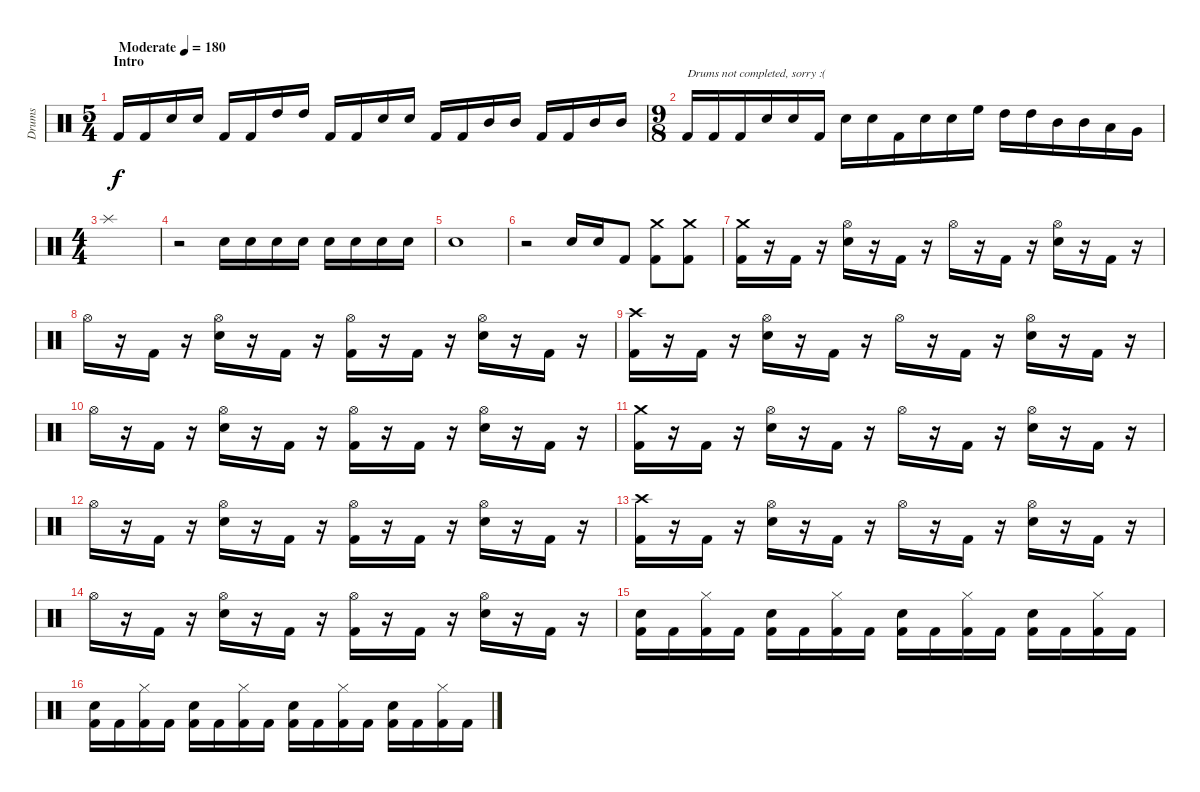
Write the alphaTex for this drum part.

\track ("Drums" "Drums") {instrument percussion}
\staff {score}
\articulation defaults
\ts (5 4)
\section ("" "Intro")
\tempo (180 "Moderate")
\clef neutral
\ks c "Kick (hit) 2".16{dy f} "Kick (hit) 2".16 "Electric Snare (hit)".16 "Electric Snare (hit)".16 "Kick (hit) 2".16 "Kick (hit) 2".16 "High Tom (hit)".16 "High Tom (hit)".16 "Kick (hit) 2".16 "Kick (hit) 2".16 "Electric Snare (hit)".16 "Electric Snare (hit)".16 "Kick (hit) 2".16 "Kick (hit) 2".16 "Mid Tom (hit)".16 "Mid Tom (hit)".16 "Kick (hit) 2".16 "Kick (hit) 2".16 "Mid Tom (hit)".16 "Mid Tom (hit)".16
|
\ts (9 8)
"Kick (hit) 2".16{txt "Drums not completed, sorry :("} "Kick (hit) 2".16 "Kick (hit) 2".16 "Electric Snare (hit)".16 "Electric Snare (hit)".16 "Kick (hit) 2".16 "Electric Snare (hit)".16 "Electric Snare (hit)".16 "Kick (hit) 2".16 "Electric Snare (hit)".16 "Electric Snare (hit)".16 "High Floor Tom (hit)".16 "High Tom (hit)".16 "High Tom (hit)".16 "Mid Tom (hit)".16 "Mid Tom (hit)".16 "Low Tom (hit)".16 "Very Low Tom (hit)".16 |
\ts (4 4)
"Splash (hit)".1 |
r.2 "Electric Snare (hit)".16 "Electric Snare (hit)".16 "Electric Snare (hit)".16 "Electric Snare (hit)".16 "Electric Snare (hit)".16 "Electric Snare (hit)".16 "Electric Snare (hit)".16 "Electric Snare (hit)".16 |
"Electric Snare (hit)".1 |
r.2 "Electric Snare (hit)".16 "Electric Snare (hit)".16 "Kick (hit) 2".8 ("Crash medium (hit)" "Kick (hit) 2").8 ("Crash medium (hit)" "Kick (hit) 2").8 |
("Crash medium (hit)" "Kick (hit) 2").16 r.16 "Kick (hit) 2".16 r.16 ("Hi-Hat (open)" "Snare (hit) 2").16 r.16 "Kick (hit) 2".16 r.16 "Hi-Hat (open)".16 r.16 "Kick (hit) 2".16 r.16 ("Hi-Hat (open)" "Snare (hit) 2").16 r.16 "Kick (hit) 2".16 r.16 |
"Hi-Hat (open)".16 r.16 "Kick (hit) 2".16 r.16 ("Hi-Hat (open)" "Snare (hit) 2").16 r.16 "Kick (hit) 2".16 r.16 ("Hi-Hat (open)" "Kick (hit) 2").16 r.16 "Kick (hit) 2".16 r.16 ("Hi-Hat (open)" "Snare (hit) 2").16 r.16 "Kick (hit) 2".16 r.16 |
("Crash high (hit)" "Kick (hit) 2").16 r.16 "Kick (hit) 2".16 r.16 ("Hi-Hat (open)" "Snare (hit) 2").16 r.16 "Kick (hit) 2".16 r.16 "Hi-Hat (open)".16 r.16 "Kick (hit) 2".16 r.16 ("Hi-Hat (open)" "Snare (hit) 2").16 r.16 "Kick (hit) 2".16 r.16 |
"Hi-Hat (open)".16 r.16 "Kick (hit) 2".16 r.16 ("Hi-Hat (open)" "Snare (hit) 2").16 r.16 "Kick (hit) 2".16 r.16 ("Hi-Hat (open)" "Kick (hit) 2").16 r.16 "Kick (hit) 2".16 r.16 ("Hi-Hat (open)" "Snare (hit) 2").16 r.16 "Kick (hit) 2".16 r.16 |
("Crash medium (hit)" "Kick (hit) 2").16 r.16 "Kick (hit) 2".16 r.16 ("Hi-Hat (open)" "Snare (hit) 2").16 r.16 "Kick (hit) 2".16 r.16 "Hi-Hat (open)".16 r.16 "Kick (hit) 2".16 r.16 ("Hi-Hat (open)" "Snare (hit) 2").16 r.16 "Kick (hit) 2".16 r.16 |
"Hi-Hat (open)".16 r.16 "Kick (hit) 2".16 r.16 ("Hi-Hat (open)" "Snare (hit) 2").16 r.16 "Kick (hit) 2".16 r.16 ("Hi-Hat (open)" "Kick (hit) 2").16 r.16 "Kick (hit) 2".16 r.16 ("Hi-Hat (open)" "Snare (hit) 2").16 r.16 "Kick (hit) 2".16 r.16 |
("Crash high (hit)" "Kick (hit) 2").16 r.16 "Kick (hit) 2".16 r.16 ("Hi-Hat (open)" "Snare (hit) 2").16 r.16 "Kick (hit) 2".16 r.16 "Hi-Hat (open)".16 r.16 "Kick (hit) 2".16 r.16 ("Hi-Hat (open)" "Snare (hit) 2").16 r.16 "Kick (hit) 2".16 r.16 |
"Hi-Hat (open)".16 r.16 "Kick (hit) 2".16 r.16 ("Hi-Hat (open)" "Snare (hit) 2").16 r.16 "Kick (hit) 2".16 r.16 ("Hi-Hat (open)" "Kick (hit) 2").16 r.16 "Kick (hit) 2".16 r.16 ("Hi-Hat (open)" "Snare (hit) 2").16 r.16 "Kick (hit) 2".16 r.16 |
("Snare (hit) 2" "Kick (hit) 2").16 "Kick (hit) 2".16 ("Hi-Hat (closed)" "Kick (hit) 2").16 "Kick (hit) 2".16 ("Snare (hit) 2" "Kick (hit) 2").16 "Kick (hit) 2".16 ("Hi-Hat (closed)" "Kick (hit) 2").16 "Kick (hit) 2".16 ("Snare (hit) 2" "Kick (hit) 2").16 "Kick (hit) 2".16 ("Hi-Hat (closed)" "Kick (hit) 2").16 "Kick (hit) 2".16 ("Snare (hit) 2" "Kick (hit) 2").16 "Kick (hit) 2".16 ("Hi-Hat (closed)" "Kick (hit) 2").16 "Kick (hit) 2".16 |
("Snare (hit) 2" "Kick (hit) 2").16 "Kick (hit) 2".16 ("Hi-Hat (closed)" "Kick (hit) 2").16 "Kick (hit) 2".16 ("Snare (hit) 2" "Kick (hit) 2").16 "Kick (hit) 2".16 ("Hi-Hat (closed)" "Kick (hit) 2").16 "Kick (hit) 2".16 ("Snare (hit) 2" "Kick (hit) 2").16 "Kick (hit) 2".16 ("Hi-Hat (closed)" "Kick (hit) 2").16 "Kick (hit) 2".16 ("Snare (hit) 2" "Kick (hit) 2").16 "Kick (hit) 2".16 ("Hi-Hat (closed)" "Kick (hit) 2").16 "Kick (hit) 2".16
